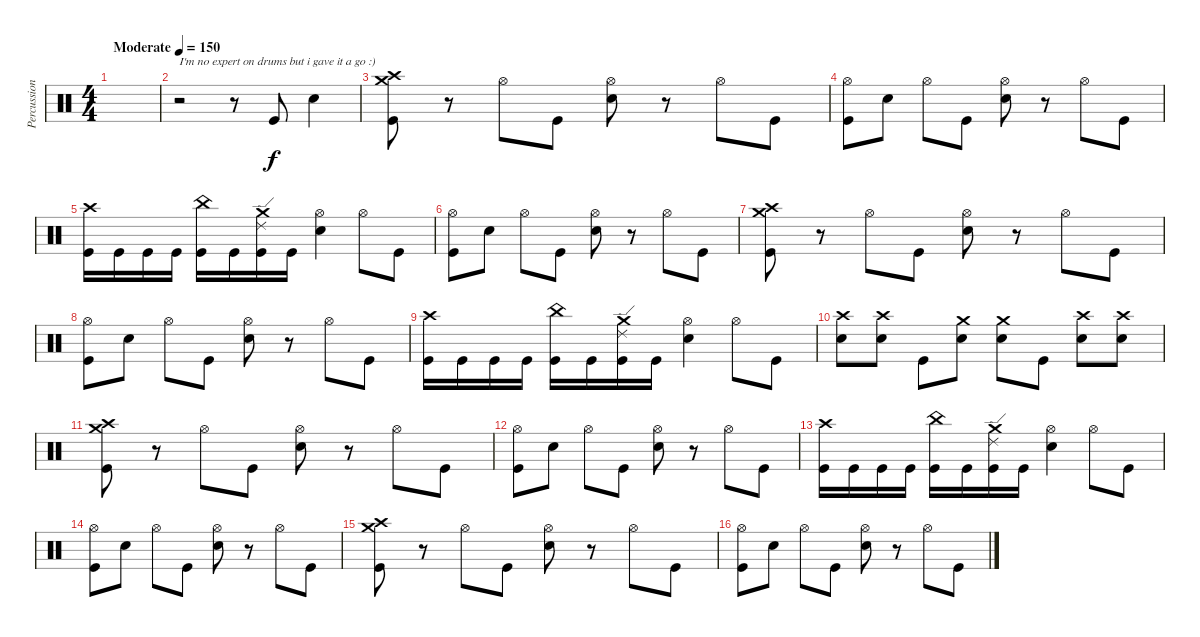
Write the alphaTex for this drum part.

\track ("Percussion" "Percussion") {instrument percussion}
\staff {score}
\articulation defaults
\ts (4 4)
\tempo (150 "Moderate")
\clef neutral
\ks c
|
r.2{txt "I'm no expert on drums but i gave it a go :)"} r.8 "Kick (hit)".8 "Snare (hit) 2".4 |
("Crash medium (hit)" "Crash high (hit)" "Kick (hit)").8 r.8 "Hi-Hat (open)".8 "Kick (hit)".8 ("Hi-Hat (open)" "Snare (hit) 2").8 r.8 "Hi-Hat (open)".8 "Kick (hit)".8 |
("Hi-Hat (open)" "Kick (hit)").8 "Snare (hit) 2".8 "Hi-Hat (open)".8 "Kick (hit)".8 ("Hi-Hat (open)" "Snare (hit) 2").8 r.8 "Hi-Hat (open)".8 "Kick (hit)".8 |
("Crash high (hit)" "Kick (hit)").16 "Kick (hit)".16 "Kick (hit)".16 "Kick (hit)".16 ("China (hit)" "Kick (hit)").16 "Kick (hit)".16 ("Crash medium (hit)" "Ride (edge) 2" "Kick (hit)").16 "Kick (hit)".16 ("Hi-Hat (open)" "Snare (hit) 2").4 "Hi-Hat (open)".8 "Kick (hit)".8 |
("Hi-Hat (open)" "Kick (hit)").8 "Snare (hit) 2".8 "Hi-Hat (open)".8 "Kick (hit)".8 ("Hi-Hat (open)" "Snare (hit) 2").8 r.8 "Hi-Hat (open)".8 "Kick (hit)".8 |
("Crash medium (hit)" "Crash high (hit)" "Kick (hit)").8 r.8 "Hi-Hat (open)".8 "Kick (hit)".8 ("Hi-Hat (open)" "Snare (hit) 2").8 r.8 "Hi-Hat (open)".8 "Kick (hit)".8 |
("Hi-Hat (open)" "Kick (hit)").8 "Snare (hit) 2".8 "Hi-Hat (open)".8 "Kick (hit)".8 ("Hi-Hat (open)" "Snare (hit) 2").8 r.8 "Hi-Hat (open)".8 "Kick (hit)".8 |
("Crash high (hit)" "Kick (hit)").16 "Kick (hit)".16 "Kick (hit)".16 "Kick (hit)".16 ("China (hit)" "Kick (hit)").16 "Kick (hit)".16 ("Crash medium (hit)" "Ride (edge) 2" "Kick (hit)").16 "Kick (hit)".16 ("Hi-Hat (open)" "Snare (hit) 2").4 "Hi-Hat (open)".8 "Kick (hit)".8 |
("Crash high (hit)" "Snare (hit) 2").8 ("Crash high (hit)" "Snare (hit) 2").8 "Kick (hit)".8 ("Crash medium (hit)" "Snare (hit) 2").8 ("Crash medium (hit)" "Snare (hit) 2").8 "Kick (hit)".8 ("Crash high (hit)" "Snare (hit) 2").8 ("Crash high (hit)" "Snare (hit) 2").8 |
("Crash medium (hit)" "Crash high (hit)" "Kick (hit)").8 r.8 "Hi-Hat (open)".8 "Kick (hit)".8 ("Hi-Hat (open)" "Snare (hit) 2").8 r.8 "Hi-Hat (open)".8 "Kick (hit)".8 |
("Hi-Hat (open)" "Kick (hit)").8 "Snare (hit) 2".8 "Hi-Hat (open)".8 "Kick (hit)".8 ("Hi-Hat (open)" "Snare (hit) 2").8 r.8 "Hi-Hat (open)".8 "Kick (hit)".8 |
("Crash high (hit)" "Kick (hit)").16 "Kick (hit)".16 "Kick (hit)".16 "Kick (hit)".16 ("China (hit)" "Kick (hit)").16 "Kick (hit)".16 ("Crash medium (hit)" "Ride (edge) 2" "Kick (hit)").16 "Kick (hit)".16 ("Hi-Hat (open)" "Snare (hit) 2").4 "Hi-Hat (open)".8 "Kick (hit)".8 |
("Hi-Hat (open)" "Kick (hit)").8 "Snare (hit) 2".8 "Hi-Hat (open)".8 "Kick (hit)".8 ("Hi-Hat (open)" "Snare (hit) 2").8 r.8 "Hi-Hat (open)".8 "Kick (hit)".8 |
("Crash medium (hit)" "Crash high (hit)" "Kick (hit)").8 r.8 "Hi-Hat (open)".8 "Kick (hit)".8 ("Hi-Hat (open)" "Snare (hit) 2").8 r.8 "Hi-Hat (open)".8 "Kick (hit)".8 |
("Hi-Hat (open)" "Kick (hit)").8 "Snare (hit) 2".8 "Hi-Hat (open)".8 "Kick (hit)".8 ("Hi-Hat (open)" "Snare (hit) 2").8 r.8 "Hi-Hat (open)".8 "Kick (hit)".8
